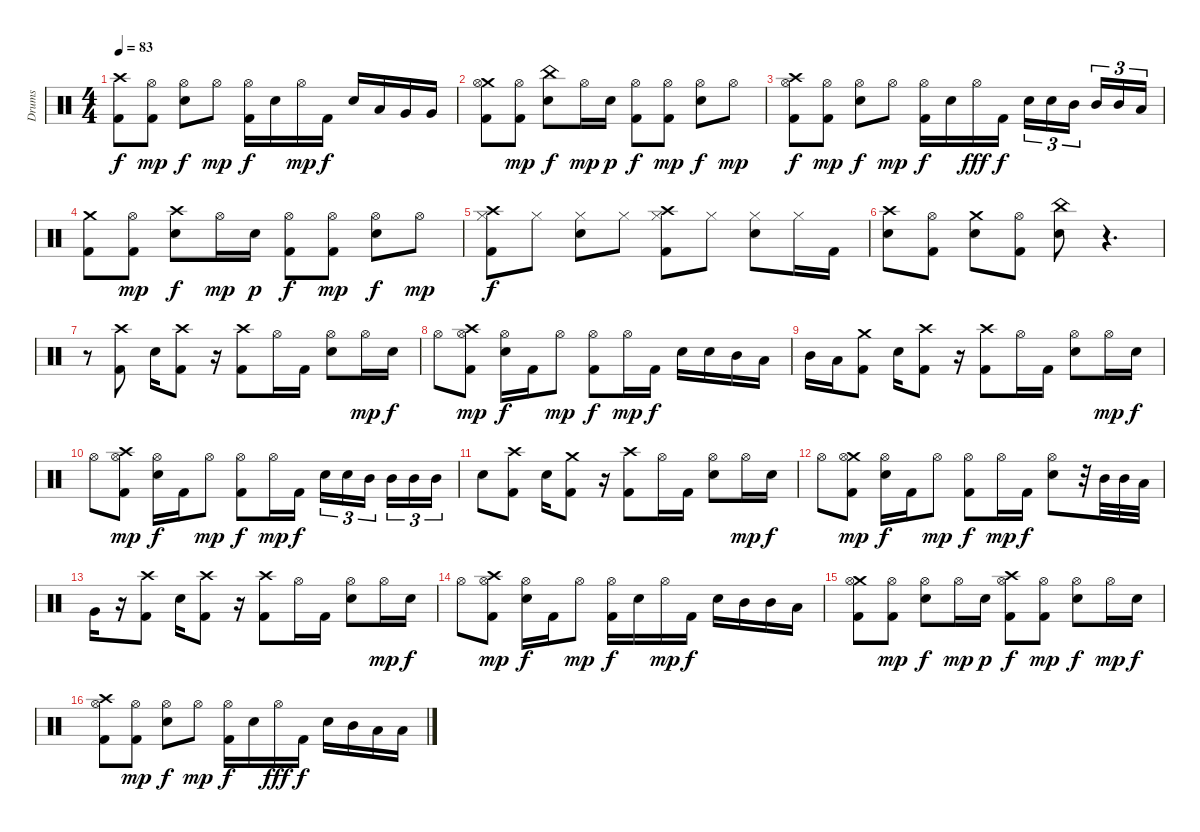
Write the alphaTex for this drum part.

\track ("Drums" "Drums") {instrument percussion}
\staff {score}
\articulation defaults
\ts (4 4)
\tempo 83
\clef neutral
\ks c
("Crash high (hit)" "Kick (hit) 2").8{dy f} ("Hi-Hat (open)" "Kick (hit) 2").8{dy mp} ("Hi-Hat (open)" "Electric Snare (hit)").8{dy f} "Hi-Hat (open)".8{dy mp} ("Hi-Hat (open)" "Kick (hit) 2").16{dy f} "Electric Snare (hit)".16 "Hi-Hat (open)".16{dy mp} "Kick (hit) 2".16{dy f} "Electric Snare (hit)".16 "Low Tom (hit)".16 "Very Low Tom (hit)".16 "Very Low Tom (hit)".16 |
("Crash medium (hit)" "Hi-Hat (open)" "Kick (hit) 2").8 ("Hi-Hat (open)" "Kick (hit) 2").8{dy mp} ("China (hit)" "Electric Snare (hit)").8{dy f} "Hi-Hat (open)".16{dy mp} "Electric Snare (hit)".16{dy p} ("Hi-Hat (open)" "Kick (hit) 2").8{dy f} ("Hi-Hat (open)" "Kick (hit) 2").8{dy mp} ("Hi-Hat (open)" "Electric Snare (hit)").8{dy f} "Hi-Hat (open)".8{dy mp} |
("Crash high (hit)" "Hi-Hat (open)" "Kick (hit) 2").8{dy f} ("Hi-Hat (open)" "Kick (hit) 2").8{dy mp} ("Hi-Hat (open)" "Electric Snare (hit)").8{dy f} "Hi-Hat (open)".8{dy mp} ("Hi-Hat (open)" "Kick (hit) 2").16{dy f} "Electric Snare (hit)".16 "Hi-Hat (open)".16{dy fff} "Kick (hit) 2".16{dy f} "Electric Snare (hit)".16{tu (3 2)} "Electric Snare (hit)".16{tu (3 2)} "Mid Tom (hit)".16{tu (3 2)} "Mid Tom (hit)".16{tu (3 2)} "Mid Tom (hit)".16{tu (3 2)} "Low Tom (hit)".16{tu (3 2)} |
("Crash medium (hit)" "Kick (hit) 2").8 ("Hi-Hat (open)" "Kick (hit) 2").8{dy mp} ("Crash high (hit)" "Electric Snare (hit)").8{dy f} "Hi-Hat (open)".16{dy mp} "Electric Snare (hit)".16{dy p} ("Hi-Hat (open)" "Kick (hit) 2").8{dy f} ("Hi-Hat (open)" "Kick (hit) 2").8{dy mp} ("Hi-Hat (open)" "Electric Snare (hit)").8{dy f} "Hi-Hat (open)".8{dy mp} |
("Crash high (hit)" "Hi-Hat (closed)" "Kick (hit) 2").8{dy f} "Hi-Hat (closed)".8 ("Hi-Hat (closed)" "Electric Snare (hit)").8 "Hi-Hat (closed)".8 ("Crash high (hit)" "Hi-Hat (closed)" "Kick (hit) 2").8 "Hi-Hat (closed)".8 ("Hi-Hat (closed)" "Electric Snare (hit)").8 "Hi-Hat (closed)".16 "Kick (hit) 2".16 |
("Crash high (hit)" "Electric Snare (hit)").8 ("Hi-Hat (open)" "Kick (hit) 2").8 ("Crash medium (hit)" "Electric Snare (hit)").8 ("Hi-Hat (open)" "Kick (hit) 2").8 ("China (hit)" "Electric Snare (hit)").8 r.4{d} |
r.8 ("Crash high (hit)" "Kick (hit) 2").8 "Electric Snare (hit)".16 ("Crash high (hit)" "Kick (hit) 2").8 r.16 ("Crash high (hit)" "Kick (hit) 2").8 "Hi-Hat (open)".16 "Kick (hit) 2".16 ("Hi-Hat (open)" "Electric Snare (hit)").8 "Hi-Hat (open)".16{dy mp} "Electric Snare (hit)".16{dy f} |
"Hi-Hat (open)".8 ("Crash high (hit)" "Hi-Hat (open)" "Kick (hit) 2").8{dy mp} ("Hi-Hat (open)" "Electric Snare (hit)").16{dy f} "Kick (hit) 2".16 "Hi-Hat (open)".8{dy mp} ("Hi-Hat (open)" "Kick (hit) 2").8{dy f} "Hi-Hat (open)".16{dy mp} "Kick (hit) 2".16{dy f} "Electric Snare (hit)".16 "Electric Snare (hit)".16 "Mid Tom (hit)".16 "Low Tom (hit)".16 |
"Mid Tom (hit)".16 "Low Tom (hit)".16 ("Crash medium (hit)" "Kick (hit) 2").8 "Electric Snare (hit)".16 ("Crash high (hit)" "Kick (hit) 2").8 r.16 ("Crash high (hit)" "Kick (hit) 2").8 "Hi-Hat (open)".16 "Kick (hit) 2".16 ("Hi-Hat (open)" "Electric Snare (hit)").8 "Hi-Hat (open)".16{dy mp} "Electric Snare (hit)".16{dy f} |
"Hi-Hat (open)".8 ("Crash high (hit)" "Hi-Hat (open)" "Kick (hit) 2").8{dy mp} ("Hi-Hat (open)" "Electric Snare (hit)").16{dy f} "Kick (hit) 2".16 "Hi-Hat (open)".8{dy mp} ("Hi-Hat (open)" "Kick (hit) 2").8{dy f} "Hi-Hat (open)".16{dy mp} "Kick (hit) 2".16{dy f} "Electric Snare (hit)".16{tu (3 2)} "Electric Snare (hit)".16{tu (3 2)} "Mid Tom (hit)".16{tu (3 2)} "Mid Tom (hit)".16{tu (3 2)} "Mid Tom (hit)".16{tu (3 2)} "Mid Tom (hit)".16{tu (3 2)} |
"Electric Snare (hit)".8 ("Crash high (hit)" "Kick (hit) 2").8 "Electric Snare (hit)".16 ("Crash medium (hit)" "Kick (hit) 2").8 r.16 ("Crash high (hit)" "Kick (hit) 2").8 "Hi-Hat (open)".16 "Kick (hit) 2".16 ("Hi-Hat (open)" "Electric Snare (hit)").8 "Hi-Hat (open)".16{dy mp} "Electric Snare (hit)".16{dy f} |
"Hi-Hat (open)".8 ("Crash medium (hit)" "Hi-Hat (open)" "Kick (hit) 2").8{dy mp} ("Hi-Hat (open)" "Electric Snare (hit)").16{dy f} "Kick (hit) 2".16 "Hi-Hat (open)".8{dy mp} ("Hi-Hat (open)" "Kick (hit) 2").8{dy f} "Hi-Hat (open)".16{dy mp} "Kick (hit) 2".16{dy f} ("Hi-Hat (open)" "Electric Snare (hit)").8 r.32 "Mid Tom (hit)".32 "Mid Tom (hit)".32 "Low Tom (hit)".32 |
"Very Low Tom (hit)".16 r.16 ("Crash high (hit)" "Kick (hit) 2").8 "Electric Snare (hit)".16 ("Crash high (hit)" "Kick (hit) 2").8 r.16 ("Crash high (hit)" "Kick (hit) 2").8 "Hi-Hat (open)".16 "Kick (hit) 2".16 ("Hi-Hat (open)" "Electric Snare (hit)").8 "Hi-Hat (open)".16{dy mp} "Electric Snare (hit)".16{dy f} |
"Hi-Hat (open)".8 ("Crash high (hit)" "Hi-Hat (open)" "Kick (hit) 2").8{dy mp} ("Hi-Hat (open)" "Electric Snare (hit)").16{dy f} "Kick (hit) 2".16 "Hi-Hat (open)".8{dy mp} ("Hi-Hat (open)" "Kick (hit) 2").16{dy f} "Electric Snare (hit)".16 "Hi-Hat (open)".16{dy mp} "Kick (hit) 2".16{dy f} "Electric Snare (hit)".16 "Mid Tom (hit)".16 "Mid Tom (hit)".16 "Low Tom (hit)".16 |
("Crash medium (hit)" "Hi-Hat (open)" "Kick (hit) 2").8 ("Hi-Hat (open)" "Kick (hit) 2").8{dy mp} ("Hi-Hat (open)" "Electric Snare (hit)").8{dy f} "Hi-Hat (open)".16{dy mp} "Electric Snare (hit)".16{dy p} ("Crash high (hit)" "Hi-Hat (open)" "Kick (hit) 2").8{dy f} ("Hi-Hat (open)" "Kick (hit) 2").8{dy mp} ("Hi-Hat (open)" "Electric Snare (hit)").8{dy f} "Hi-Hat (open)".16{dy mp} "Electric Snare (hit)".16{dy f} |
("Crash high (hit)" "Hi-Hat (open)" "Kick (hit) 2").8 ("Hi-Hat (open)" "Kick (hit) 2").8{dy mp} ("Hi-Hat (open)" "Electric Snare (hit)").8{dy f} "Hi-Hat (open)".8{dy mp} ("Hi-Hat (open)" "Kick (hit) 2").16{dy f} "Electric Snare (hit)".16 "Hi-Hat (open)".16{dy fff} "Kick (hit) 2".16{dy f} "Electric Snare (hit)".16 "Mid Tom (hit)".16 "Low Tom (hit)".16 "Low Tom (hit)".16
